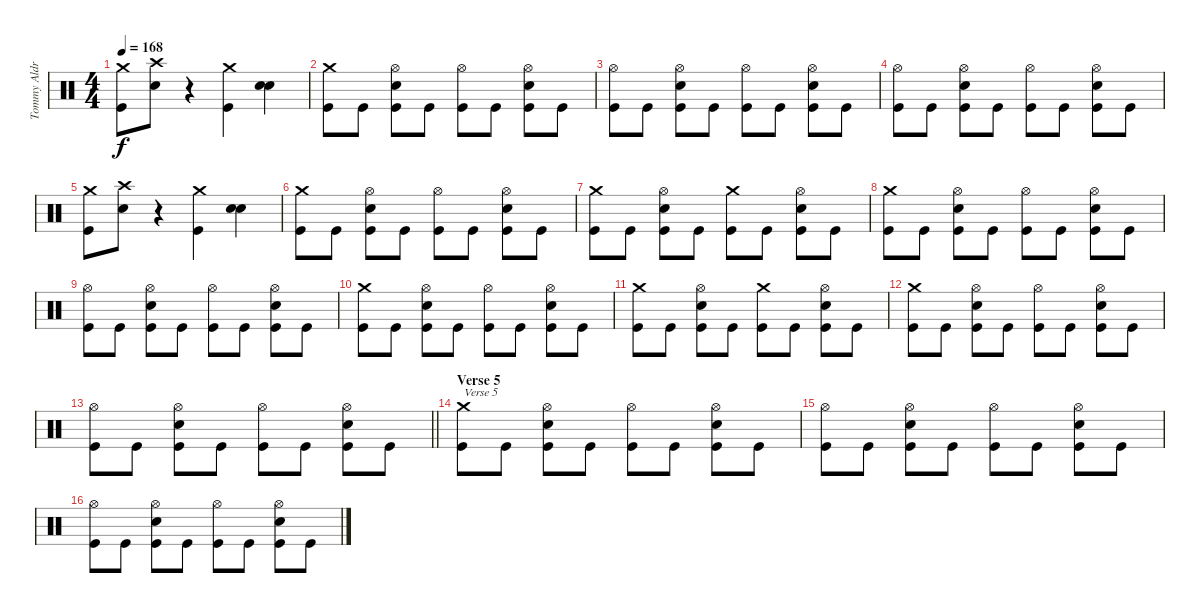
\track ("Tommy Aldrige" "Tommy Aldr") {instrument percussion}
\staff {score}
\articulation defaults
\ts (4 4)
\tempo 168
\clef neutral
\ks c
("Crash medium (hit)" "Kick (hit)").8{dy f} ("Crash high (hit)" "Snare (hit) 2").8 r.4 ("Crash medium (hit)" "Kick (hit)").4 ("Snare (hit) 2" "Snare (hit) 2").4{bd 240} |
("Crash medium (hit)" "Kick (hit)").8 "Kick (hit)".8 ("Hi-Hat (open)" "Snare (hit) 2" "Kick (hit)").8 "Kick (hit)".8 ("Hi-Hat (open)" "Kick (hit)").8 "Kick (hit)".8 ("Hi-Hat (open)" "Snare (hit) 2" "Kick (hit)").8 "Kick (hit)".8 |
("Hi-Hat (open)" "Kick (hit)").8 "Kick (hit)".8 ("Hi-Hat (open)" "Snare (hit) 2" "Kick (hit)").8 "Kick (hit)".8 ("Hi-Hat (open)" "Kick (hit)").8 "Kick (hit)".8 ("Hi-Hat (open)" "Snare (hit) 2" "Kick (hit)").8 "Kick (hit)".8 |
("Hi-Hat (open)" "Kick (hit)").8 "Kick (hit)".8 ("Hi-Hat (open)" "Snare (hit) 2" "Kick (hit)").8 "Kick (hit)".8 ("Hi-Hat (open)" "Kick (hit)").8 "Kick (hit)".8 ("Hi-Hat (open)" "Snare (hit) 2" "Kick (hit)").8 "Kick (hit)".8 |
("Crash medium (hit)" "Kick (hit)").8 ("Crash high (hit)" "Snare (hit) 2").8 r.4 ("Crash medium (hit)" "Kick (hit)").4 ("Snare (hit) 2" "Snare (hit) 2").4{bd 240} |
("Crash medium (hit)" "Kick (hit)").8 "Kick (hit)".8 ("Hi-Hat (open)" "Snare (hit) 2" "Kick (hit)").8 "Kick (hit)".8 ("Hi-Hat (open)" "Kick (hit)").8 "Kick (hit)".8 ("Hi-Hat (open)" "Snare (hit) 2" "Kick (hit)").8 "Kick (hit)".8 |
("Crash medium (hit)" "Kick (hit)").8 "Kick (hit)".8 ("Hi-Hat (open)" "Snare (hit) 2" "Kick (hit)").8 "Kick (hit)".8 ("Crash medium (hit)" "Kick (hit)").8 "Kick (hit)".8 ("Hi-Hat (open)" "Snare (hit) 2" "Kick (hit)").8 "Kick (hit)".8 |
("Crash medium (hit)" "Kick (hit)").8 "Kick (hit)".8 ("Hi-Hat (open)" "Snare (hit) 2" "Kick (hit)").8 "Kick (hit)".8 ("Hi-Hat (open)" "Kick (hit)").8 "Kick (hit)".8 ("Hi-Hat (open)" "Snare (hit) 2" "Kick (hit)").8 "Kick (hit)".8 |
("Hi-Hat (open)" "Kick (hit)").8 "Kick (hit)".8 ("Hi-Hat (open)" "Snare (hit) 2" "Kick (hit)").8 "Kick (hit)".8 ("Hi-Hat (open)" "Kick (hit)").8 "Kick (hit)".8 ("Hi-Hat (open)" "Snare (hit) 2" "Kick (hit)").8 "Kick (hit)".8 |
("Crash medium (hit)" "Kick (hit)").8 "Kick (hit)".8 ("Hi-Hat (open)" "Snare (hit) 2" "Kick (hit)").8 "Kick (hit)".8 ("Hi-Hat (open)" "Kick (hit)").8 "Kick (hit)".8 ("Hi-Hat (open)" "Snare (hit) 2" "Kick (hit)").8 "Kick (hit)".8 |
("Crash medium (hit)" "Kick (hit)").8 "Kick (hit)".8 ("Hi-Hat (open)" "Snare (hit) 2" "Kick (hit)").8 "Kick (hit)".8 ("Crash medium (hit)" "Kick (hit)").8 "Kick (hit)".8 ("Hi-Hat (open)" "Snare (hit) 2" "Kick (hit)").8 "Kick (hit)".8 |
("Crash medium (hit)" "Kick (hit)").8 "Kick (hit)".8 ("Hi-Hat (open)" "Snare (hit) 2" "Kick (hit)").8 "Kick (hit)".8 ("Hi-Hat (open)" "Kick (hit)").8 "Kick (hit)".8 ("Hi-Hat (open)" "Snare (hit) 2" "Kick (hit)").8 "Kick (hit)".8 |
\barLineRight lightlight
("Hi-Hat (open)" "Kick (hit)").8 "Kick (hit)".8 ("Hi-Hat (open)" "Snare (hit) 2" "Kick (hit)").8 "Kick (hit)".8 ("Hi-Hat (open)" "Kick (hit)").8 "Kick (hit)".8 ("Hi-Hat (open)" "Snare (hit) 2" "Kick (hit)").8 "Kick (hit)".8 |
\section ("" "Verse 5")
("Crash medium (hit)" "Kick (hit)").8{txt "Verse 5"} "Kick (hit)".8 ("Hi-Hat (open)" "Snare (hit) 2" "Kick (hit)").8 "Kick (hit)".8 ("Hi-Hat (open)" "Kick (hit)").8 "Kick (hit)".8 ("Hi-Hat (open)" "Snare (hit) 2" "Kick (hit)").8 "Kick (hit)".8 |
("Hi-Hat (open)" "Kick (hit)").8 "Kick (hit)".8 ("Hi-Hat (open)" "Snare (hit) 2" "Kick (hit)").8 "Kick (hit)".8 ("Hi-Hat (open)" "Kick (hit)").8 "Kick (hit)".8 ("Hi-Hat (open)" "Snare (hit) 2" "Kick (hit)").8 "Kick (hit)".8 |
("Hi-Hat (open)" "Kick (hit)").8 "Kick (hit)".8 ("Hi-Hat (open)" "Snare (hit) 2" "Kick (hit)").8 "Kick (hit)".8 ("Hi-Hat (open)" "Kick (hit)").8 "Kick (hit)".8 ("Hi-Hat (open)" "Snare (hit) 2" "Kick (hit)").8 "Kick (hit)".8
